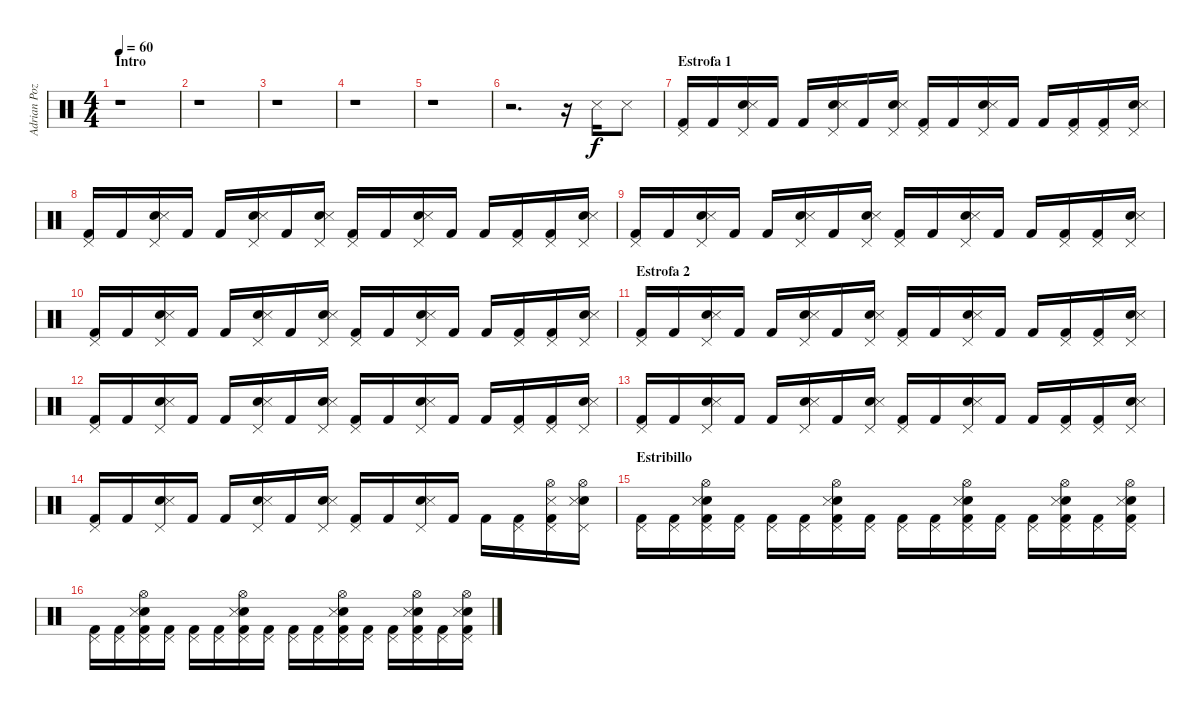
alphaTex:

\track ("Adrian Pozo" "Adrian Poz") {instrument percussion}
\staff {score}
\articulation defaults
\ts (4 4)
\section ("" "Intro")
\tempo 60
\clef neutral
\ks c
r.1{dy f} |
r.1 |
r.1 |
r.1 |
r.1 |
r.2{d} r.16 "Snare (side stick) 3".16 "Snare (side stick) 3".8 |
\section ("" "Estrofa 1")
("Kick (hit) 2" "Pedal Hi-Hat (hit)").16 "Kick (hit) 2".16 ("Snare (hit) 2" "Snare (side stick) 3" "Pedal Hi-Hat (hit)").16 "Kick (hit) 2".16 "Kick (hit) 2".16 ("Snare (hit) 2" "Snare (side stick) 3" "Pedal Hi-Hat (hit)").16 "Kick (hit) 2".16 ("Snare (hit) 2" "Snare (side stick) 3" "Pedal Hi-Hat (hit)").16 ("Kick (hit) 2" "Pedal Hi-Hat (hit)").16 "Kick (hit) 2".16 ("Snare (hit) 2" "Snare (side stick) 3" "Pedal Hi-Hat (hit)").16 "Kick (hit) 2".16 "Kick (hit) 2".16 ("Kick (hit) 2" "Pedal Hi-Hat (hit)").16 ("Kick (hit) 2" "Pedal Hi-Hat (hit)").16 ("Snare (hit) 2" "Snare (side stick) 3" "Pedal Hi-Hat (hit)").16 |
("Kick (hit) 2" "Pedal Hi-Hat (hit)").16 "Kick (hit) 2".16 ("Snare (hit) 2" "Snare (side stick) 3" "Pedal Hi-Hat (hit)").16 "Kick (hit) 2".16 "Kick (hit) 2".16 ("Snare (hit) 2" "Snare (side stick) 3" "Pedal Hi-Hat (hit)").16 "Kick (hit) 2".16 ("Snare (hit) 2" "Snare (side stick) 3" "Pedal Hi-Hat (hit)").16 ("Kick (hit) 2" "Pedal Hi-Hat (hit)").16 "Kick (hit) 2".16 ("Snare (hit) 2" "Snare (side stick) 3" "Pedal Hi-Hat (hit)").16 "Kick (hit) 2".16 "Kick (hit) 2".16 ("Kick (hit) 2" "Pedal Hi-Hat (hit)").16 ("Kick (hit) 2" "Pedal Hi-Hat (hit)").16 ("Snare (hit) 2" "Snare (side stick) 3" "Pedal Hi-Hat (hit)").16 |
("Kick (hit) 2" "Pedal Hi-Hat (hit)").16 "Kick (hit) 2".16 ("Snare (hit) 2" "Snare (side stick) 3" "Pedal Hi-Hat (hit)").16 "Kick (hit) 2".16 "Kick (hit) 2".16 ("Snare (hit) 2" "Snare (side stick) 3" "Pedal Hi-Hat (hit)").16 "Kick (hit) 2".16 ("Snare (hit) 2" "Snare (side stick) 3" "Pedal Hi-Hat (hit)").16 ("Kick (hit) 2" "Pedal Hi-Hat (hit)").16 "Kick (hit) 2".16 ("Snare (hit) 2" "Snare (side stick) 3" "Pedal Hi-Hat (hit)").16 "Kick (hit) 2".16 "Kick (hit) 2".16 ("Kick (hit) 2" "Pedal Hi-Hat (hit)").16 ("Kick (hit) 2" "Pedal Hi-Hat (hit)").16 ("Snare (hit) 2" "Snare (side stick) 3" "Pedal Hi-Hat (hit)").16 |
("Kick (hit) 2" "Pedal Hi-Hat (hit)").16 "Kick (hit) 2".16 ("Snare (hit) 2" "Snare (side stick) 3" "Pedal Hi-Hat (hit)").16 "Kick (hit) 2".16 "Kick (hit) 2".16 ("Snare (hit) 2" "Snare (side stick) 3" "Pedal Hi-Hat (hit)").16 "Kick (hit) 2".16 ("Snare (hit) 2" "Snare (side stick) 3" "Pedal Hi-Hat (hit)").16 ("Kick (hit) 2" "Pedal Hi-Hat (hit)").16 "Kick (hit) 2".16 ("Snare (hit) 2" "Snare (side stick) 3" "Pedal Hi-Hat (hit)").16 "Kick (hit) 2".16 "Kick (hit) 2".16 ("Kick (hit) 2" "Pedal Hi-Hat (hit)").16 ("Kick (hit) 2" "Pedal Hi-Hat (hit)").16 ("Snare (hit) 2" "Snare (side stick) 3" "Pedal Hi-Hat (hit)").16 |
\section ("" "Estrofa 2")
("Kick (hit) 2" "Pedal Hi-Hat (hit)").16 "Kick (hit) 2".16 ("Snare (hit) 2" "Snare (side stick) 3" "Pedal Hi-Hat (hit)").16 "Kick (hit) 2".16 "Kick (hit) 2".16 ("Snare (hit) 2" "Snare (side stick) 3" "Pedal Hi-Hat (hit)").16 "Kick (hit) 2".16 ("Snare (hit) 2" "Snare (side stick) 3" "Pedal Hi-Hat (hit)").16 ("Kick (hit) 2" "Pedal Hi-Hat (hit)").16 "Kick (hit) 2".16 ("Snare (hit) 2" "Snare (side stick) 3" "Pedal Hi-Hat (hit)").16 "Kick (hit) 2".16 "Kick (hit) 2".16 ("Kick (hit) 2" "Pedal Hi-Hat (hit)").16 ("Kick (hit) 2" "Pedal Hi-Hat (hit)").16 ("Snare (hit) 2" "Snare (side stick) 3" "Pedal Hi-Hat (hit)").16 |
("Kick (hit) 2" "Pedal Hi-Hat (hit)").16 "Kick (hit) 2".16 ("Snare (hit) 2" "Snare (side stick) 3" "Pedal Hi-Hat (hit)").16 "Kick (hit) 2".16 "Kick (hit) 2".16 ("Snare (hit) 2" "Snare (side stick) 3" "Pedal Hi-Hat (hit)").16 "Kick (hit) 2".16 ("Snare (hit) 2" "Snare (side stick) 3" "Pedal Hi-Hat (hit)").16 ("Kick (hit) 2" "Pedal Hi-Hat (hit)").16 "Kick (hit) 2".16 ("Snare (hit) 2" "Snare (side stick) 3" "Pedal Hi-Hat (hit)").16 "Kick (hit) 2".16 "Kick (hit) 2".16 ("Kick (hit) 2" "Pedal Hi-Hat (hit)").16 ("Kick (hit) 2" "Pedal Hi-Hat (hit)").16 ("Snare (hit) 2" "Snare (side stick) 3" "Pedal Hi-Hat (hit)").16 |
("Kick (hit) 2" "Pedal Hi-Hat (hit)").16 "Kick (hit) 2".16 ("Snare (hit) 2" "Snare (side stick) 3" "Pedal Hi-Hat (hit)").16 "Kick (hit) 2".16 "Kick (hit) 2".16 ("Snare (hit) 2" "Snare (side stick) 3" "Pedal Hi-Hat (hit)").16 "Kick (hit) 2".16 ("Snare (hit) 2" "Snare (side stick) 3" "Pedal Hi-Hat (hit)").16 ("Kick (hit) 2" "Pedal Hi-Hat (hit)").16 "Kick (hit) 2".16 ("Snare (hit) 2" "Snare (side stick) 3" "Pedal Hi-Hat (hit)").16 "Kick (hit) 2".16 "Kick (hit) 2".16 ("Kick (hit) 2" "Pedal Hi-Hat (hit)").16 ("Kick (hit) 2" "Pedal Hi-Hat (hit)").16 ("Snare (hit) 2" "Snare (side stick) 3" "Pedal Hi-Hat (hit)").16 |
("Kick (hit) 2" "Pedal Hi-Hat (hit)").16 "Kick (hit) 2".16 ("Snare (hit) 2" "Snare (side stick) 3" "Pedal Hi-Hat (hit)").16 "Kick (hit) 2".16 "Kick (hit) 2".16 ("Snare (hit) 2" "Snare (side stick) 3" "Pedal Hi-Hat (hit)").16 "Kick (hit) 2".16 ("Snare (hit) 2" "Snare (side stick) 3" "Pedal Hi-Hat (hit)").16 ("Kick (hit) 2" "Pedal Hi-Hat (hit)").16 "Kick (hit) 2".16 ("Snare (hit) 2" "Snare (side stick) 3" "Pedal Hi-Hat (hit)").16 "Kick (hit) 2".16 "Kick (hit) 2".16 ("Kick (hit) 2" "Pedal Hi-Hat (hit)").16 ("Kick (hit) 2" "Snare (side stick) 3" "Hi-Hat (open)" "Pedal Hi-Hat (hit)").16 ("Snare (hit) 2" "Snare (side stick) 3" "Hi-Hat (open)" "Pedal Hi-Hat (hit)").16 |
\section ("" "Estribillo")
("Kick (hit) 2" "Pedal Hi-Hat (hit)").16 ("Kick (hit) 2" "Pedal Hi-Hat (hit)").16 ("Snare (hit) 2" "Kick (hit) 2" "Snare (side stick) 3" "Hi-Hat (open)" "Pedal Hi-Hat (hit)").16 ("Kick (hit) 2" "Pedal Hi-Hat (hit)").16 ("Kick (hit) 2" "Pedal Hi-Hat (hit)").16 ("Kick (hit) 2" "Pedal Hi-Hat (hit)").16 ("Snare (hit) 2" "Kick (hit) 2" "Snare (side stick) 3" "Hi-Hat (open)" "Pedal Hi-Hat (hit)").16 ("Kick (hit) 2" "Pedal Hi-Hat (hit)").16 ("Kick (hit) 2" "Pedal Hi-Hat (hit)").16 ("Kick (hit) 2" "Pedal Hi-Hat (hit)").16 ("Snare (hit) 2" "Kick (hit) 2" "Snare (side stick) 3" "Hi-Hat (open)" "Pedal Hi-Hat (hit)").16 ("Kick (hit) 2" "Pedal Hi-Hat (hit)").16 ("Kick (hit) 2" "Pedal Hi-Hat (hit)").16 ("Snare (hit) 2" "Kick (hit) 2" "Snare (side stick) 3" "Hi-Hat (open)" "Pedal Hi-Hat (hit)").16 ("Kick (hit) 2" "Pedal Hi-Hat (hit)").16 ("Snare (hit) 2" "Kick (hit) 2" "Snare (side stick) 3" "Hi-Hat (open)" "Pedal Hi-Hat (hit)").16 |
("Kick (hit) 2" "Pedal Hi-Hat (hit)").16 ("Kick (hit) 2" "Pedal Hi-Hat (hit)").16 ("Snare (hit) 2" "Kick (hit) 2" "Snare (side stick) 3" "Hi-Hat (open)" "Pedal Hi-Hat (hit)").16 ("Kick (hit) 2" "Pedal Hi-Hat (hit)").16 ("Kick (hit) 2" "Pedal Hi-Hat (hit)").16 ("Kick (hit) 2" "Pedal Hi-Hat (hit)").16 ("Snare (hit) 2" "Kick (hit) 2" "Snare (side stick) 3" "Hi-Hat (open)" "Pedal Hi-Hat (hit)").16 ("Kick (hit) 2" "Pedal Hi-Hat (hit)").16 ("Kick (hit) 2" "Pedal Hi-Hat (hit)").16 ("Kick (hit) 2" "Pedal Hi-Hat (hit)").16 ("Snare (hit) 2" "Kick (hit) 2" "Snare (side stick) 3" "Hi-Hat (open)" "Pedal Hi-Hat (hit)").16 ("Kick (hit) 2" "Pedal Hi-Hat (hit)").16 ("Kick (hit) 2" "Pedal Hi-Hat (hit)").16 ("Snare (hit) 2" "Kick (hit) 2" "Snare (side stick) 3" "Hi-Hat (open)" "Pedal Hi-Hat (hit)").16 ("Kick (hit) 2" "Pedal Hi-Hat (hit)").16 ("Snare (hit) 2" "Kick (hit) 2" "Snare (side stick) 3" "Hi-Hat (open)" "Pedal Hi-Hat (hit)").16
